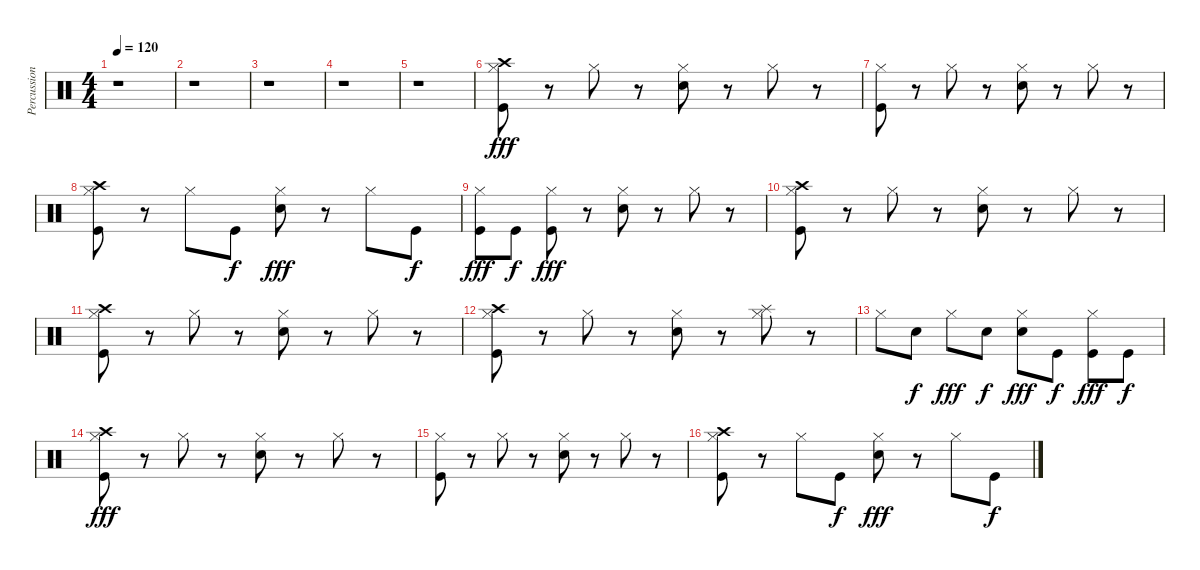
\track ("Percussion" "Percussion") {instrument percussion}
\staff {score}
\articulation defaults
\ts (4 4)
\tempo 120
\clef neutral
\ks c
r.1{dy f} |
r.1 |
r.1 |
r.1 |
r.1 |
("Hi-Hat (closed)" "Crash high (hit)" "Kick (hit)").8{dy fff} r.8 "Hi-Hat (closed)".8 r.8 ("Hi-Hat (closed)" "Snare (hit) 2").8 r.8 "Hi-Hat (closed)".8 r.8 |
("Hi-Hat (closed)" "Kick (hit)").8 r.8 "Hi-Hat (closed)".8 r.8 ("Hi-Hat (closed)" "Snare (hit) 2").8 r.8 "Hi-Hat (closed)".8 r.8 |
("Hi-Hat (closed)" "Crash high (hit)" "Kick (hit)").8 r.8 "Hi-Hat (closed)".8 "Kick (hit)".8{dy f} ("Hi-Hat (closed)" "Snare (hit) 2").8{dy fff} r.8 "Hi-Hat (closed)".8 "Kick (hit)".8{dy f} |
("Hi-Hat (closed)" "Kick (hit)").8{dy fff} "Kick (hit)".8{dy f} ("Hi-Hat (closed)" "Kick (hit)").8{dy fff} r.8 ("Hi-Hat (closed)" "Snare (hit) 2").8 r.8 "Hi-Hat (closed)".8 r.8 |
("Hi-Hat (closed)" "Crash high (hit)" "Kick (hit)").8 r.8 "Hi-Hat (closed)".8 r.8 ("Hi-Hat (closed)" "Snare (hit) 2").8 r.8 "Hi-Hat (closed)".8 r.8 |
("Hi-Hat (closed)" "Crash high (hit)" "Kick (hit)").8 r.8 "Hi-Hat (closed)".8 r.8 ("Hi-Hat (closed)" "Snare (hit) 2").8 r.8 "Hi-Hat (closed)".8 r.8 |
("Hi-Hat (closed)" "Crash high (hit)" "Kick (hit)").8 r.8 "Hi-Hat (closed)".8 r.8 ("Hi-Hat (closed)" "Snare (hit) 2").8 r.8 ("Hi-Hat (closed)" "Splash (hit)").8 r.8 |
"Hi-Hat (closed)".8 "Snare (hit) 2".8{dy f} "Hi-Hat (closed)".8{dy fff} "Snare (hit) 2".8{dy f} ("Hi-Hat (closed)" "Snare (hit) 2").8{dy fff} "Kick (hit)".8{dy f} ("Hi-Hat (closed)" "Kick (hit)").8{dy fff} "Kick (hit)".8{dy f} |
("Hi-Hat (closed)" "Crash high (hit)" "Kick (hit)").8{dy fff} r.8 "Hi-Hat (closed)".8 r.8 ("Hi-Hat (closed)" "Snare (hit) 2").8 r.8 "Hi-Hat (closed)".8 r.8 |
("Hi-Hat (closed)" "Kick (hit)").8 r.8 "Hi-Hat (closed)".8 r.8 ("Hi-Hat (closed)" "Snare (hit) 2").8 r.8 "Hi-Hat (closed)".8 r.8 |
("Hi-Hat (closed)" "Crash high (hit)" "Kick (hit)").8 r.8 "Hi-Hat (closed)".8 "Kick (hit)".8{dy f} ("Hi-Hat (closed)" "Snare (hit) 2").8{dy fff} r.8 "Hi-Hat (closed)".8 "Kick (hit)".8{dy f}
